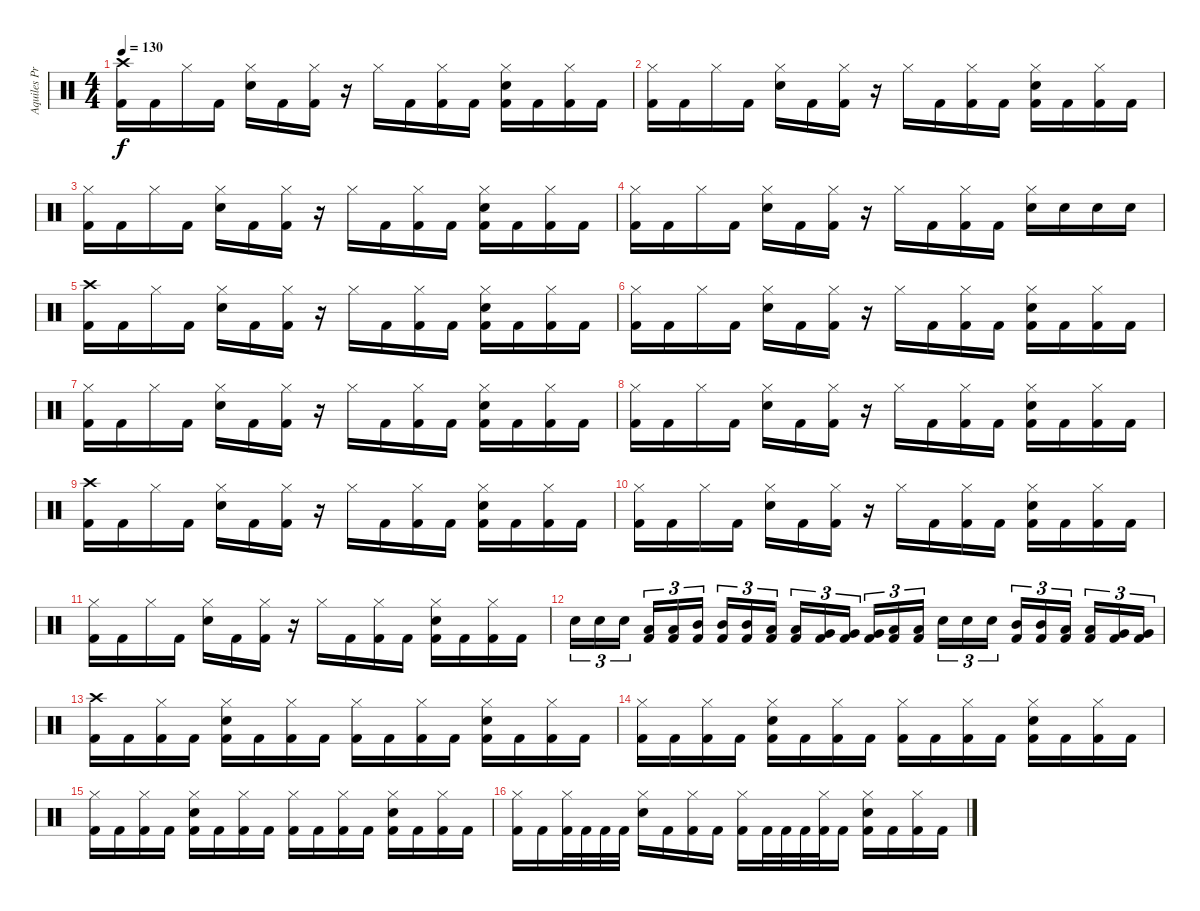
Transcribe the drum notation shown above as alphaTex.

\track ("Aquiles Priester" "Aquiles Pr") {instrument percussion}
\staff {score}
\articulation defaults
\ts (4 4)
\tempo 130
\clef neutral
\ks c
("Crash high (hit)" "Kick (hit) 2").16{dy f} "Kick (hit) 2".16 "Hi-Hat (closed)".16 "Kick (hit) 2".16 ("Hi-Hat (closed)" "Electric Snare (hit)").16 "Kick (hit) 2".16 ("Hi-Hat (closed)" "Kick (hit) 2").16 r.16 "Hi-Hat (closed)".16 "Kick (hit) 2".16 ("Hi-Hat (closed)" "Kick (hit) 2").16 "Kick (hit) 2".16 ("Hi-Hat (closed)" "Electric Snare (hit)" "Kick (hit) 2").16 "Kick (hit) 2".16 ("Hi-Hat (closed)" "Kick (hit) 2").16 "Kick (hit) 2".16 |
("Hi-Hat (closed)" "Kick (hit) 2").16 "Kick (hit) 2".16 "Hi-Hat (closed)".16 "Kick (hit) 2".16 ("Hi-Hat (closed)" "Electric Snare (hit)").16 "Kick (hit) 2".16 ("Hi-Hat (closed)" "Kick (hit) 2").16 r.16 "Hi-Hat (closed)".16 "Kick (hit) 2".16 ("Hi-Hat (closed)" "Kick (hit) 2").16 "Kick (hit) 2".16 ("Hi-Hat (closed)" "Electric Snare (hit)" "Kick (hit) 2").16 "Kick (hit) 2".16 ("Hi-Hat (closed)" "Kick (hit) 2").16 "Kick (hit) 2".16 |
("Hi-Hat (closed)" "Kick (hit) 2").16 "Kick (hit) 2".16 "Hi-Hat (closed)".16 "Kick (hit) 2".16 ("Hi-Hat (closed)" "Electric Snare (hit)").16 "Kick (hit) 2".16 ("Hi-Hat (closed)" "Kick (hit) 2").16 r.16 "Hi-Hat (closed)".16 "Kick (hit) 2".16 ("Hi-Hat (closed)" "Kick (hit) 2").16 "Kick (hit) 2".16 ("Hi-Hat (closed)" "Electric Snare (hit)" "Kick (hit) 2").16 "Kick (hit) 2".16 ("Hi-Hat (closed)" "Kick (hit) 2").16 "Kick (hit) 2".16 |
("Hi-Hat (closed)" "Kick (hit) 2").16 "Kick (hit) 2".16 "Hi-Hat (closed)".16 "Kick (hit) 2".16 ("Hi-Hat (closed)" "Electric Snare (hit)").16 "Kick (hit) 2".16 ("Hi-Hat (closed)" "Kick (hit) 2").16 r.16 "Hi-Hat (closed)".16 "Kick (hit) 2".16 ("Hi-Hat (closed)" "Kick (hit) 2").16 "Kick (hit) 2".16 ("Hi-Hat (closed)" "Electric Snare (hit)").16 "Electric Snare (hit)".16 "Electric Snare (hit)".16 "Electric Snare (hit)".16 |
("Crash high (hit)" "Kick (hit) 2").16 "Kick (hit) 2".16 "Hi-Hat (closed)".16 "Kick (hit) 2".16 ("Hi-Hat (closed)" "Electric Snare (hit)").16 "Kick (hit) 2".16 ("Hi-Hat (closed)" "Kick (hit) 2").16 r.16 "Hi-Hat (closed)".16 "Kick (hit) 2".16 ("Hi-Hat (closed)" "Kick (hit) 2").16 "Kick (hit) 2".16 ("Hi-Hat (closed)" "Electric Snare (hit)" "Kick (hit) 2").16 "Kick (hit) 2".16 ("Hi-Hat (closed)" "Kick (hit) 2").16 "Kick (hit) 2".16 |
("Hi-Hat (closed)" "Kick (hit) 2").16 "Kick (hit) 2".16 "Hi-Hat (closed)".16 "Kick (hit) 2".16 ("Hi-Hat (closed)" "Electric Snare (hit)").16 "Kick (hit) 2".16 ("Hi-Hat (closed)" "Kick (hit) 2").16 r.16 "Hi-Hat (closed)".16 "Kick (hit) 2".16 ("Hi-Hat (closed)" "Kick (hit) 2").16 "Kick (hit) 2".16 ("Hi-Hat (closed)" "Electric Snare (hit)" "Kick (hit) 2").16 "Kick (hit) 2".16 ("Hi-Hat (closed)" "Kick (hit) 2").16 "Kick (hit) 2".16 |
("Hi-Hat (closed)" "Kick (hit) 2").16 "Kick (hit) 2".16 "Hi-Hat (closed)".16 "Kick (hit) 2".16 ("Hi-Hat (closed)" "Electric Snare (hit)").16 "Kick (hit) 2".16 ("Hi-Hat (closed)" "Kick (hit) 2").16 r.16 "Hi-Hat (closed)".16 "Kick (hit) 2".16 ("Hi-Hat (closed)" "Kick (hit) 2").16 "Kick (hit) 2".16 ("Hi-Hat (closed)" "Electric Snare (hit)" "Kick (hit) 2").16 "Kick (hit) 2".16 ("Hi-Hat (closed)" "Kick (hit) 2").16 "Kick (hit) 2".16 |
("Hi-Hat (closed)" "Kick (hit) 2").16 "Kick (hit) 2".16 "Hi-Hat (closed)".16 "Kick (hit) 2".16 ("Hi-Hat (closed)" "Electric Snare (hit)").16 "Kick (hit) 2".16 ("Hi-Hat (closed)" "Kick (hit) 2").16 r.16 "Hi-Hat (closed)".16 "Kick (hit) 2".16 ("Hi-Hat (closed)" "Kick (hit) 2").16 "Kick (hit) 2".16 ("Hi-Hat (closed)" "Electric Snare (hit)" "Kick (hit) 2").16 "Kick (hit) 2".16 ("Hi-Hat (closed)" "Kick (hit) 2").16 "Kick (hit) 2".16 |
("Crash high (hit)" "Kick (hit) 2").16 "Kick (hit) 2".16 "Hi-Hat (closed)".16 "Kick (hit) 2".16 ("Hi-Hat (closed)" "Electric Snare (hit)").16 "Kick (hit) 2".16 ("Hi-Hat (closed)" "Kick (hit) 2").16 r.16 "Hi-Hat (closed)".16 "Kick (hit) 2".16 ("Hi-Hat (closed)" "Kick (hit) 2").16 "Kick (hit) 2".16 ("Hi-Hat (closed)" "Electric Snare (hit)" "Kick (hit) 2").16 "Kick (hit) 2".16 ("Hi-Hat (closed)" "Kick (hit) 2").16 "Kick (hit) 2".16 |
("Hi-Hat (closed)" "Kick (hit) 2").16 "Kick (hit) 2".16 "Hi-Hat (closed)".16 "Kick (hit) 2".16 ("Hi-Hat (closed)" "Electric Snare (hit)").16 "Kick (hit) 2".16 ("Hi-Hat (closed)" "Kick (hit) 2").16 r.16 "Hi-Hat (closed)".16 "Kick (hit) 2".16 ("Hi-Hat (closed)" "Kick (hit) 2").16 "Kick (hit) 2".16 ("Hi-Hat (closed)" "Electric Snare (hit)" "Kick (hit) 2").16 "Kick (hit) 2".16 ("Hi-Hat (closed)" "Kick (hit) 2").16 "Kick (hit) 2".16 |
("Hi-Hat (closed)" "Kick (hit) 2").16 "Kick (hit) 2".16 "Hi-Hat (closed)".16 "Kick (hit) 2".16 ("Hi-Hat (closed)" "Electric Snare (hit)").16 "Kick (hit) 2".16 ("Hi-Hat (closed)" "Kick (hit) 2").16 r.16 "Hi-Hat (closed)".16 "Kick (hit) 2".16 ("Hi-Hat (closed)" "Kick (hit) 2").16 "Kick (hit) 2".16 ("Hi-Hat (closed)" "Electric Snare (hit)" "Kick (hit) 2").16 "Kick (hit) 2".16 ("Hi-Hat (closed)" "Kick (hit) 2").16 "Kick (hit) 2".16 |
"Electric Snare (hit)".16{tu (3 2)} "Electric Snare (hit)".16{tu (3 2)} "Electric Snare (hit)".16{tu (3 2) beam splitsecondary} ("Low Tom (hit)" "Kick (hit) 2").16{tu (3 2)} ("Low Tom (hit)" "Kick (hit) 2").16{tu (3 2)} ("Mid Tom (hit)" "Kick (hit) 2").16{tu (3 2)} ("Mid Tom (hit)" "Kick (hit) 2").16{tu (3 2)} ("Mid Tom (hit)" "Kick (hit) 2").16{tu (3 2)} ("Low Tom (hit)" "Kick (hit) 2").16{tu (3 2) beam splitsecondary} ("Low Tom (hit)" "Kick (hit) 2").16{tu (3 2)} ("Very Low Tom (hit)" "Kick (hit) 2").16{tu (3 2)} ("Very Low Tom (hit)" "Kick (hit) 2").16{tu (3 2)} ("Very Low Tom (hit)" "Kick (hit) 2").16{tu (3 2)} ("Low Floor Tom (hit)" "Kick (hit) 2").16{tu (3 2)} ("Low Floor Tom (hit)" "Kick (hit) 2").16{tu (3 2) beam splitsecondary} "Electric Snare (hit)".16{tu (3 2)} "Electric Snare (hit)".16{tu (3 2)} "Electric Snare (hit)".16{tu (3 2)} ("Mid Tom (hit)" "Kick (hit) 2").16{tu (3 2)} ("Mid Tom (hit)" "Kick (hit) 2").16{tu (3 2)} ("Low Tom (hit)" "Kick (hit) 2").16{tu (3 2) beam splitsecondary} ("Low Tom (hit)" "Kick (hit) 2").16{tu (3 2)} ("Very Low Tom (hit)" "Kick (hit) 2").16{tu (3 2)} ("Very Low Tom (hit)" "Kick (hit) 2").16{tu (3 2)} |
("Crash high (hit)" "Kick (hit) 2").16 "Kick (hit) 2".16 ("Hi-Hat (closed)" "Kick (hit) 2").16 "Kick (hit) 2".16 ("Hi-Hat (closed)" "Electric Snare (hit)" "Kick (hit) 2").16 "Kick (hit) 2".16 ("Hi-Hat (closed)" "Kick (hit) 2").16 "Kick (hit) 2".16 ("Hi-Hat (closed)" "Kick (hit) 2").16 "Kick (hit) 2".16 ("Hi-Hat (closed)" "Kick (hit) 2").16 "Kick (hit) 2".16 ("Hi-Hat (closed)" "Electric Snare (hit)" "Kick (hit) 2").16 "Kick (hit) 2".16 ("Hi-Hat (closed)" "Kick (hit) 2").16 "Kick (hit) 2".16 |
("Hi-Hat (closed)" "Kick (hit) 2").16 "Kick (hit) 2".16 ("Hi-Hat (closed)" "Kick (hit) 2").16 "Kick (hit) 2".16 ("Hi-Hat (closed)" "Electric Snare (hit)" "Kick (hit) 2").16 "Kick (hit) 2".16 ("Hi-Hat (closed)" "Kick (hit) 2").16 "Kick (hit) 2".16 ("Hi-Hat (closed)" "Kick (hit) 2").16 "Kick (hit) 2".16 ("Hi-Hat (closed)" "Kick (hit) 2").16 "Kick (hit) 2".16 ("Hi-Hat (closed)" "Electric Snare (hit)" "Kick (hit) 2").16 "Kick (hit) 2".16 ("Hi-Hat (closed)" "Kick (hit) 2").16 "Kick (hit) 2".16 |
("Hi-Hat (closed)" "Kick (hit) 2").16 "Kick (hit) 2".16 ("Hi-Hat (closed)" "Kick (hit) 2").16 "Kick (hit) 2".16 ("Hi-Hat (closed)" "Electric Snare (hit)" "Kick (hit) 2").16 "Kick (hit) 2".16 ("Hi-Hat (closed)" "Kick (hit) 2").16 "Kick (hit) 2".16 ("Hi-Hat (closed)" "Kick (hit) 2").16 "Kick (hit) 2".16 ("Hi-Hat (closed)" "Kick (hit) 2").16 "Kick (hit) 2".16 ("Hi-Hat (closed)" "Electric Snare (hit)" "Kick (hit) 2").16 "Kick (hit) 2".16 ("Hi-Hat (closed)" "Kick (hit) 2").16 "Kick (hit) 2".16 |
("Hi-Hat (closed)" "Kick (hit) 2").16 "Kick (hit) 2".16 ("Hi-Hat (closed)" "Kick (hit) 2").32 "Kick (hit) 2".32 "Kick (hit) 2".32 "Kick (hit) 2".32 ("Hi-Hat (closed)" "Electric Snare (hit)").16 "Kick (hit) 2".16 ("Hi-Hat (closed)" "Kick (hit) 2").16 "Kick (hit) 2".16 ("Hi-Hat (closed)" "Kick (hit) 2").16 "Kick (hit) 2".32 "Kick (hit) 2".32 "Kick (hit) 2".32 ("Hi-Hat (closed)" "Kick (hit) 2").32 "Kick (hit) 2".16 ("Hi-Hat (closed)" "Electric Snare (hit)" "Kick (hit) 2").16 "Kick (hit) 2".16 ("Hi-Hat (closed)" "Kick (hit) 2").16 "Kick (hit) 2".16
